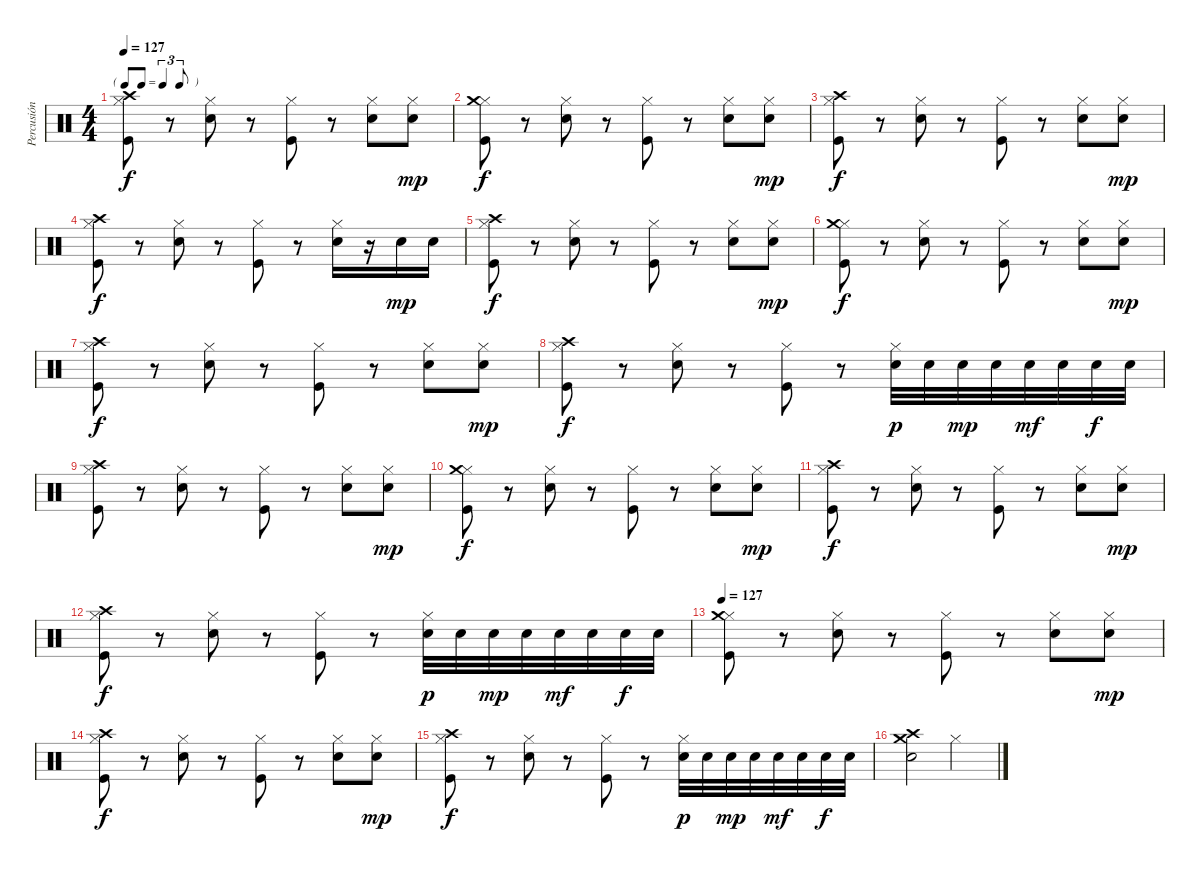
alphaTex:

\track ("Percusión" "Percusión") {instrument percussion}
\staff {score}
\articulation defaults
\ts (4 4)
\tf triplet8th
\tempo 127
\clef neutral
\ks c
("Hi-Hat (closed)" "Crash high (hit)" "Kick (hit)").8{dy f} r.8 ("Hi-Hat (closed)" "Snare (hit) 2").8 r.8 ("Hi-Hat (closed)" "Kick (hit)").8 r.8 ("Hi-Hat (closed)" "Snare (hit) 2").8 ("Hi-Hat (closed)" "Snare (hit) 2").8{dy mp} |
("Hi-Hat (closed)" "Crash medium (hit)" "Kick (hit)").8{dy f} r.8 ("Hi-Hat (closed)" "Snare (hit) 2").8 r.8 ("Hi-Hat (closed)" "Kick (hit)").8 r.8 ("Hi-Hat (closed)" "Snare (hit) 2").8 ("Hi-Hat (closed)" "Snare (hit) 2").8{dy mp} |
("Hi-Hat (closed)" "Crash high (hit)" "Kick (hit)").8{dy f} r.8 ("Hi-Hat (closed)" "Snare (hit) 2").8 r.8 ("Hi-Hat (closed)" "Kick (hit)").8 r.8 ("Hi-Hat (closed)" "Snare (hit) 2").8 ("Hi-Hat (closed)" "Snare (hit) 2").8{dy mp} |
("Hi-Hat (closed)" "Crash high (hit)" "Kick (hit)").8{dy f} r.8 ("Hi-Hat (closed)" "Snare (hit) 2").8 r.8 ("Hi-Hat (closed)" "Kick (hit)").8 r.8 ("Hi-Hat (closed)" "Snare (hit) 2").16 r.16 "Snare (hit) 2".16{dy mp} "Snare (hit) 2".16 |
("Hi-Hat (closed)" "Crash high (hit)" "Kick (hit)").8{dy f} r.8 ("Hi-Hat (closed)" "Snare (hit) 2").8 r.8 ("Hi-Hat (closed)" "Kick (hit)").8 r.8 ("Hi-Hat (closed)" "Snare (hit) 2").8 ("Hi-Hat (closed)" "Snare (hit) 2").8{dy mp} |
("Hi-Hat (closed)" "Crash medium (hit)" "Kick (hit)").8{dy f} r.8 ("Hi-Hat (closed)" "Snare (hit) 2").8 r.8 ("Hi-Hat (closed)" "Kick (hit)").8 r.8 ("Hi-Hat (closed)" "Snare (hit) 2").8 ("Hi-Hat (closed)" "Snare (hit) 2").8{dy mp} |
("Hi-Hat (closed)" "Crash high (hit)" "Kick (hit)").8{dy f} r.8 ("Hi-Hat (closed)" "Snare (hit) 2").8 r.8 ("Hi-Hat (closed)" "Kick (hit)").8 r.8 ("Hi-Hat (closed)" "Snare (hit) 2").8 ("Hi-Hat (closed)" "Snare (hit) 2").8{dy mp} |
("Hi-Hat (closed)" "Crash high (hit)" "Kick (hit)").8{dy f} r.8 ("Hi-Hat (closed)" "Snare (hit) 2").8 r.8 ("Hi-Hat (closed)" "Kick (hit)").8 r.8 ("Hi-Hat (closed)" "Snare (hit) 2").32{dy p} "Snare (hit) 2".32 "Snare (hit) 2".32{dy mp} "Snare (hit) 2".32 "Snare (hit) 2".32{dy mf} "Snare (hit) 2".32 "Snare (hit) 2".32{dy f} "Snare (hit) 2".32 |
("Hi-Hat (closed)" "Crash high (hit)" "Kick (hit)").8 r.8 ("Hi-Hat (closed)" "Snare (hit) 2").8 r.8 ("Hi-Hat (closed)" "Kick (hit)").8 r.8 ("Hi-Hat (closed)" "Snare (hit) 2").8 ("Hi-Hat (closed)" "Snare (hit) 2").8{dy mp} |
("Hi-Hat (closed)" "Crash medium (hit)" "Kick (hit)").8{dy f} r.8 ("Hi-Hat (closed)" "Snare (hit) 2").8 r.8 ("Hi-Hat (closed)" "Kick (hit)").8 r.8 ("Hi-Hat (closed)" "Snare (hit) 2").8 ("Hi-Hat (closed)" "Snare (hit) 2").8{dy mp} |
("Hi-Hat (closed)" "Crash high (hit)" "Kick (hit)").8{dy f} r.8 ("Hi-Hat (closed)" "Snare (hit) 2").8 r.8 ("Hi-Hat (closed)" "Kick (hit)").8 r.8 ("Hi-Hat (closed)" "Snare (hit) 2").8 ("Hi-Hat (closed)" "Snare (hit) 2").8{dy mp} |
("Hi-Hat (closed)" "Crash high (hit)" "Kick (hit)").8{dy f} r.8 ("Hi-Hat (closed)" "Snare (hit) 2").8 r.8 ("Hi-Hat (closed)" "Kick (hit)").8 r.8 ("Hi-Hat (closed)" "Snare (hit) 2").32{dy p} "Snare (hit) 2".32 "Snare (hit) 2".32{dy mp} "Snare (hit) 2".32 "Snare (hit) 2".32{dy mf} "Snare (hit) 2".32 "Snare (hit) 2".32{dy f} "Snare (hit) 2".32 |
\tempo 127
("Hi-Hat (closed)" "Crash medium (hit)" "Kick (hit)").8 r.8 ("Hi-Hat (closed)" "Snare (hit) 2").8 r.8 ("Hi-Hat (closed)" "Kick (hit)").8 r.8 ("Hi-Hat (closed)" "Snare (hit) 2").8 ("Hi-Hat (closed)" "Snare (hit) 2").8{dy mp} |
("Hi-Hat (closed)" "Crash high (hit)" "Kick (hit)").8{dy f} r.8 ("Hi-Hat (closed)" "Snare (hit) 2").8 r.8 ("Hi-Hat (closed)" "Kick (hit)").8 r.8 ("Hi-Hat (closed)" "Snare (hit) 2").8 ("Hi-Hat (closed)" "Snare (hit) 2").8{dy mp} |
("Hi-Hat (closed)" "Crash high (hit)" "Kick (hit)").8{dy f} r.8 ("Hi-Hat (closed)" "Snare (hit) 2").8 r.8 ("Hi-Hat (closed)" "Kick (hit)").8 r.8 ("Hi-Hat (closed)" "Snare (hit) 2").32{dy p} "Snare (hit) 2".32 "Snare (hit) 2".32{dy mp} "Snare (hit) 2".32 "Snare (hit) 2".32{dy mf} "Snare (hit) 2".32 "Snare (hit) 2".32{dy f} "Snare (hit) 2".32 |
("Snare (hit) 2" "Crash high (hit)" "Crash medium (hit)").2 "Hi-Hat (closed)".2
